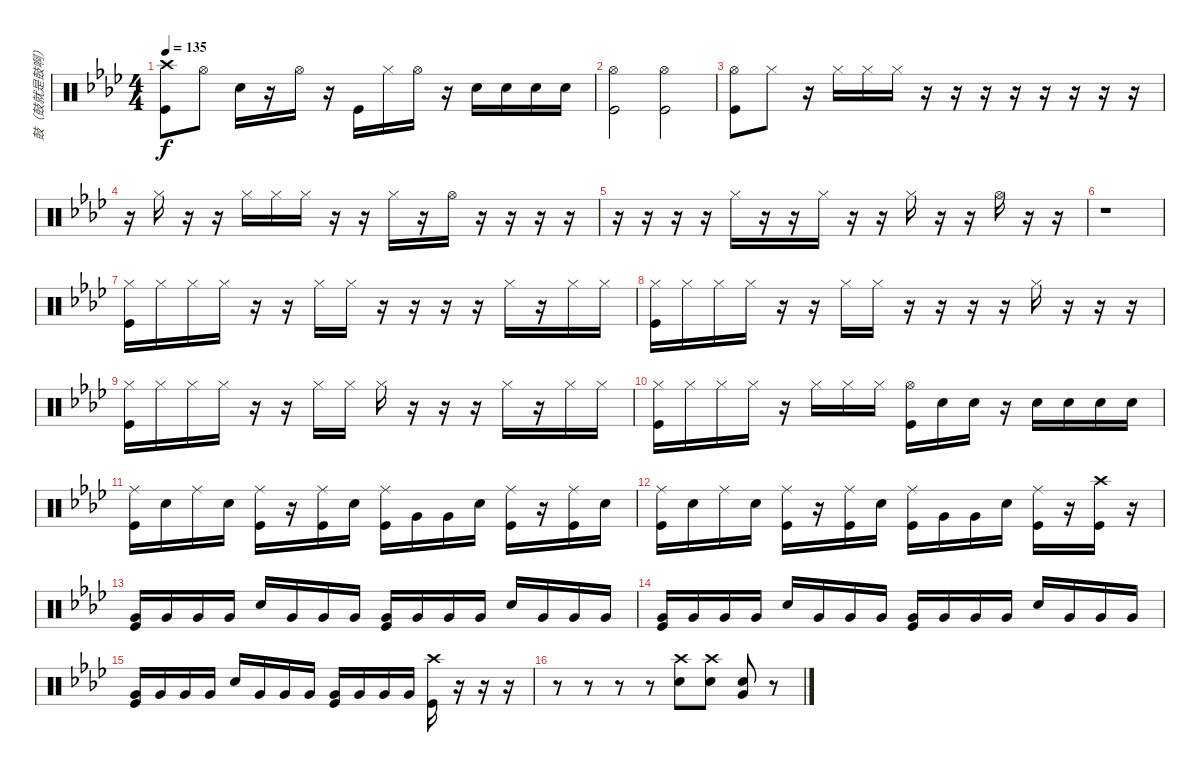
\track ("鼓（鼓就是鼓啊）" "鼓（鼓就是鼓啊）") {instrument percussion}
\staff {score}
\articulation defaults
\ts (4 4)
\tempo 135
\clef neutral
\ks ab
("Crash high (hit)" "Kick (hit)").8{dy f} "Hi-Hat (open)".8 "Snare (hit) 2".16 r.16 "Hi-Hat (open)".16 r.16 "Kick (hit)".16 "Hi-Hat (closed)".16 "Hi-Hat (open)".16 r.16 "Snare (hit) 2".16 "Snare (hit) 2".16 "Snare (hit) 2".16 "Snare (hit) 2".16 |
("Hi-Hat (open)" "Kick (hit)").2 ("Hi-Hat (open)" "Kick (hit)").2 |
("Hi-Hat (open)" "Kick (hit)").8 "Hi-Hat (closed)".8 r.16 "Hi-Hat (closed)".16 "Hi-Hat (closed)".16 "Hi-Hat (closed)".16 r.16 r.16 r.16 r.16 r.16 r.16 r.16 r.16 |
r.16 "Hi-Hat (closed)".16 r.16 r.16 "Hi-Hat (closed)".16 "Hi-Hat (closed)".16 "Hi-Hat (closed)".16 r.16 r.16 "Hi-Hat (closed)".16 r.16 "Hi-Hat (open)".16 r.16 r.16 r.16 r.16 |
r.16 r.16 r.16 r.16 "Hi-Hat (closed)".16 r.16 r.16 "Hi-Hat (closed)".16 r.16 r.16 "Hi-Hat (closed)".16 r.16 r.16 "Hi-Hat (open)".16 r.16 r.16 |
r.1 |
("Hi-Hat (closed)" "Kick (hit)").16 "Hi-Hat (closed)".16 "Hi-Hat (closed)".16 "Hi-Hat (closed)".16 r.16 r.16 "Hi-Hat (closed)".16 "Hi-Hat (closed)".16 r.16 r.16 r.16 r.16 "Hi-Hat (closed)".16 r.16 "Hi-Hat (closed)".16 "Hi-Hat (closed)".16 |
("Hi-Hat (closed)" "Kick (hit)").16 "Hi-Hat (closed)".16 "Hi-Hat (closed)".16 "Hi-Hat (closed)".16 r.16 r.16 "Hi-Hat (closed)".16 "Hi-Hat (closed)".16 r.16 r.16 r.16 r.16 "Hi-Hat (closed)".16 r.16 r.16 r.16 |
("Hi-Hat (closed)" "Kick (hit)").16 "Hi-Hat (closed)".16 "Hi-Hat (closed)".16 "Hi-Hat (closed)".16 r.16 r.16 "Hi-Hat (closed)".16 "Hi-Hat (closed)".16 "Hi-Hat (closed)".16 r.16 r.16 r.16 "Hi-Hat (closed)".16 r.16 "Hi-Hat (closed)".16 "Hi-Hat (closed)".16 |
("Hi-Hat (closed)" "Kick (hit)").16 "Hi-Hat (closed)".16 "Hi-Hat (closed)".16 "Hi-Hat (closed)".16 r.16 "Hi-Hat (closed)".16 "Hi-Hat (closed)".16 "Hi-Hat (closed)".16 ("Hi-Hat (open)" "Kick (hit)").16 "Snare (hit) 2".16 "Snare (hit) 2".16 r.16 "Snare (hit) 2".16 "Snare (hit) 2".16 "Snare (hit) 2".16 "Snare (hit) 2".16 |
("Ride (middle)" "Kick (hit)").16 "Snare (hit) 2".16 "Ride (middle)".16 "Snare (hit) 2".16 ("Ride (middle)" "Kick (hit)").16 r.16 ("Ride (middle)" "Kick (hit)").16 "Snare (hit) 2".16 ("Ride (middle)" "Kick (hit)").16 "Very Low Tom (hit)".16 "Very Low Tom (hit)".16 "Snare (hit) 2".16 ("Ride (middle)" "Kick (hit)").16 r.16 ("Ride (middle)" "Kick (hit)").16 "Snare (hit) 2".16 |
("Ride (middle)" "Kick (hit)").16 "Snare (hit) 2".16 "Ride (middle)".16 "Snare (hit) 2".16 ("Ride (middle)" "Kick (hit)").16 r.16 ("Ride (middle)" "Kick (hit)").16 "Snare (hit) 2".16 ("Ride (middle)" "Kick (hit)").16 "Very Low Tom (hit)".16 "Very Low Tom (hit)".16 "Snare (hit) 2".16 ("Ride (middle)" "Kick (hit)").16 r.16 ("Crash high (hit)" "Kick (hit)").16 r.16 |
("Very Low Tom (hit)" "Kick (hit)").16 "Very Low Tom (hit)".16 "Very Low Tom (hit)".16 "Very Low Tom (hit)".16 "Snare (hit) 2".16 "Very Low Tom (hit)".16 "Very Low Tom (hit)".16 "Very Low Tom (hit)".16 ("Very Low Tom (hit)" "Kick (hit)").16 "Very Low Tom (hit)".16 "Very Low Tom (hit)".16 "Very Low Tom (hit)".16 "Snare (hit) 2".16 "Very Low Tom (hit)".16 "Very Low Tom (hit)".16 "Very Low Tom (hit)".16 |
("Very Low Tom (hit)" "Kick (hit)").16 "Very Low Tom (hit)".16 "Very Low Tom (hit)".16 "Very Low Tom (hit)".16 "Snare (hit) 2".16 "Very Low Tom (hit)".16 "Very Low Tom (hit)".16 "Very Low Tom (hit)".16 ("Very Low Tom (hit)" "Kick (hit)").16 "Very Low Tom (hit)".16 "Very Low Tom (hit)".16 "Very Low Tom (hit)".16 "Snare (hit) 2".16 "Very Low Tom (hit)".16 "Very Low Tom (hit)".16 "Very Low Tom (hit)".16 |
("Very Low Tom (hit)" "Kick (hit)").16 "Very Low Tom (hit)".16 "Very Low Tom (hit)".16 "Very Low Tom (hit)".16 "Snare (hit) 2".16 "Very Low Tom (hit)".16 "Very Low Tom (hit)".16 "Very Low Tom (hit)".16 ("Very Low Tom (hit)" "Kick (hit)").16 "Very Low Tom (hit)".16 "Very Low Tom (hit)".16 "Very Low Tom (hit)".16 ("Crash high (hit)" "Kick (hit)").16 r.16 r.16 r.16 |
r.8 r.8 r.8 r.8 ("Crash high (hit)" "Snare (hit) 2").8 ("Crash high (hit)" "Snare (hit) 2").8 ("Snare (hit) 2" "Very Low Tom (hit)").8 r.8
